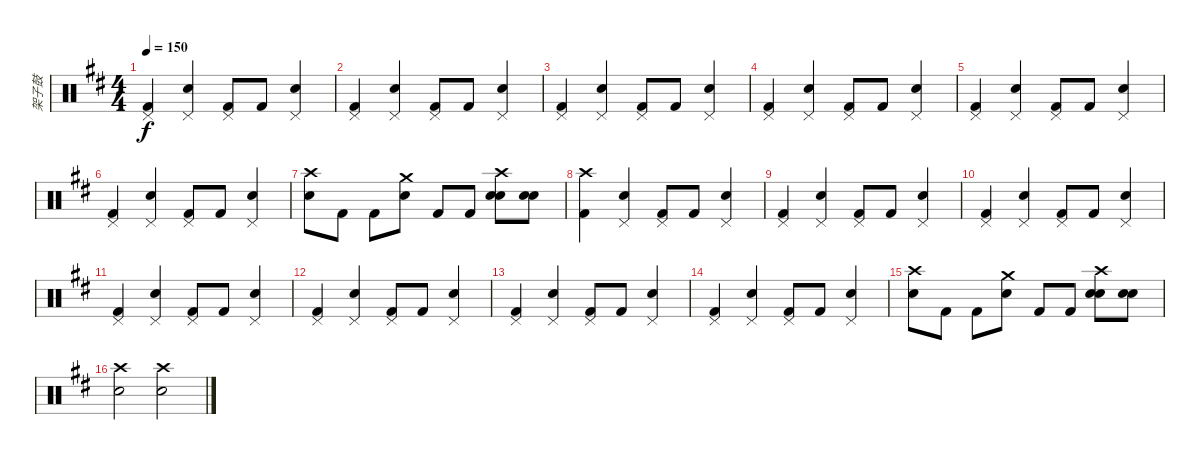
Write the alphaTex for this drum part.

\track ("架子鼓" "架子鼓") {instrument percussion}
\staff {score}
\articulation defaults
\ts (4 4)
\tempo 150
\clef neutral
\ks bminor
("Pedal Hi-Hat (hit)" "Kick (hit) 2").4{dy f} ("Pedal Hi-Hat (hit)" "Snare (hit) 2").4 ("Pedal Hi-Hat (hit)" "Kick (hit) 2").8 "Kick (hit) 2".8 ("Pedal Hi-Hat (hit)" "Snare (hit) 2").4 |
("Pedal Hi-Hat (hit)" "Kick (hit) 2").4 ("Pedal Hi-Hat (hit)" "Snare (hit) 2").4 ("Pedal Hi-Hat (hit)" "Kick (hit) 2").8 "Kick (hit) 2".8 ("Pedal Hi-Hat (hit)" "Snare (hit) 2").4 |
("Pedal Hi-Hat (hit)" "Kick (hit) 2").4 ("Pedal Hi-Hat (hit)" "Snare (hit) 2").4 ("Pedal Hi-Hat (hit)" "Kick (hit) 2").8 "Kick (hit) 2".8 ("Pedal Hi-Hat (hit)" "Snare (hit) 2").4 |
("Pedal Hi-Hat (hit)" "Kick (hit) 2").4 ("Pedal Hi-Hat (hit)" "Snare (hit) 2").4 ("Pedal Hi-Hat (hit)" "Kick (hit) 2").8 "Kick (hit) 2".8 ("Pedal Hi-Hat (hit)" "Snare (hit) 2").4 |
("Pedal Hi-Hat (hit)" "Kick (hit) 2").4 ("Pedal Hi-Hat (hit)" "Snare (hit) 2").4 ("Pedal Hi-Hat (hit)" "Kick (hit) 2").8 "Kick (hit) 2".8 ("Pedal Hi-Hat (hit)" "Snare (hit) 2").4 |
("Pedal Hi-Hat (hit)" "Kick (hit) 2").4 ("Pedal Hi-Hat (hit)" "Snare (hit) 2").4 ("Pedal Hi-Hat (hit)" "Kick (hit) 2").8 "Kick (hit) 2".8 ("Pedal Hi-Hat (hit)" "Snare (hit) 2").4 |
("Crash high (hit)" "Snare (hit) 2").8 "Kick (hit) 2".8 "Kick (hit) 2".8 ("Crash medium (hit)" "Snare (hit) 2").8 "Kick (hit) 2".8 "Kick (hit) 2".8 ("Crash high (hit)" "Snare (hit) 2" "Snare (hit) 2").8 ("Snare (hit) 2" "Snare (hit) 2").8 |
("Crash high (hit)" "Kick (hit) 2").4 ("Pedal Hi-Hat (hit)" "Snare (hit) 2").4 ("Pedal Hi-Hat (hit)" "Kick (hit) 2").8 "Kick (hit) 2".8 ("Pedal Hi-Hat (hit)" "Snare (hit) 2").4 |
("Pedal Hi-Hat (hit)" "Kick (hit) 2").4 ("Pedal Hi-Hat (hit)" "Snare (hit) 2").4 ("Pedal Hi-Hat (hit)" "Kick (hit) 2").8 "Kick (hit) 2".8 ("Pedal Hi-Hat (hit)" "Snare (hit) 2").4 |
("Pedal Hi-Hat (hit)" "Kick (hit) 2").4 ("Pedal Hi-Hat (hit)" "Snare (hit) 2").4 ("Pedal Hi-Hat (hit)" "Kick (hit) 2").8 "Kick (hit) 2".8 ("Pedal Hi-Hat (hit)" "Snare (hit) 2").4 |
("Pedal Hi-Hat (hit)" "Kick (hit) 2").4 ("Pedal Hi-Hat (hit)" "Snare (hit) 2").4 ("Pedal Hi-Hat (hit)" "Kick (hit) 2").8 "Kick (hit) 2".8 ("Pedal Hi-Hat (hit)" "Snare (hit) 2").4 |
("Pedal Hi-Hat (hit)" "Kick (hit) 2").4 ("Pedal Hi-Hat (hit)" "Snare (hit) 2").4 ("Pedal Hi-Hat (hit)" "Kick (hit) 2").8 "Kick (hit) 2".8 ("Pedal Hi-Hat (hit)" "Snare (hit) 2").4 |
("Pedal Hi-Hat (hit)" "Kick (hit) 2").4 ("Pedal Hi-Hat (hit)" "Snare (hit) 2").4 ("Pedal Hi-Hat (hit)" "Kick (hit) 2").8 "Kick (hit) 2".8 ("Pedal Hi-Hat (hit)" "Snare (hit) 2").4 |
("Pedal Hi-Hat (hit)" "Kick (hit) 2").4 ("Pedal Hi-Hat (hit)" "Snare (hit) 2").4 ("Pedal Hi-Hat (hit)" "Kick (hit) 2").8 "Kick (hit) 2".8 ("Pedal Hi-Hat (hit)" "Snare (hit) 2").4 |
("Crash high (hit)" "Snare (hit) 2").8 "Kick (hit) 2".8 "Kick (hit) 2".8 ("Crash medium (hit)" "Snare (hit) 2").8 "Kick (hit) 2".8 "Kick (hit) 2".8 ("Crash high (hit)" "Snare (hit) 2" "Snare (hit) 2").8 ("Snare (hit) 2" "Snare (hit) 2").8 |
("Snare (hit) 2" "Crash high (hit)").2 ("Snare (hit) 2" "Crash high (hit)").2
